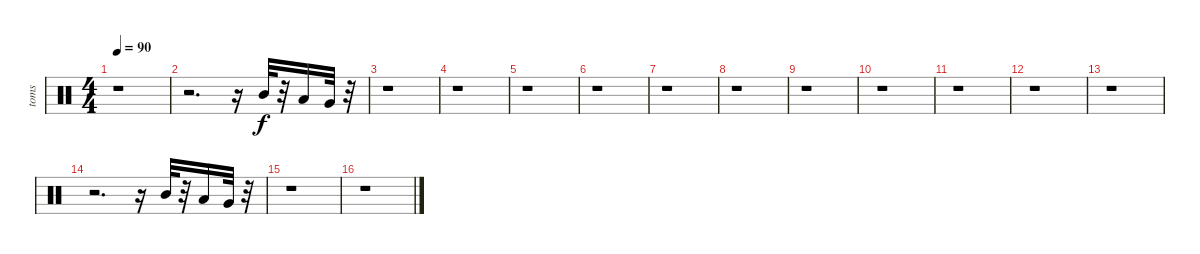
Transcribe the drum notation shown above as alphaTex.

\track ("toms" "toms") {instrument percussion}
\staff {score}
\articulation defaults
\ts (4 4)
\tempo 90
\clef neutral
\ks c
r.1{dy f} |
r.2{d} r.16 "Mid Tom (hit)".32 r.32 "Low Tom (hit)".16 "Very Low Tom (hit)".32 r.32 |
r.1 |
r.1 |
r.1 |
r.1 |
r.1 |
r.1 |
r.1 |
r.1 |
r.1 |
r.1 |
r.1 |
r.2{d} r.16 "Mid Tom (hit)".32 r.32 "Low Tom (hit)".16 "Very Low Tom (hit)".32 r.32 |
r.1 |
r.1
